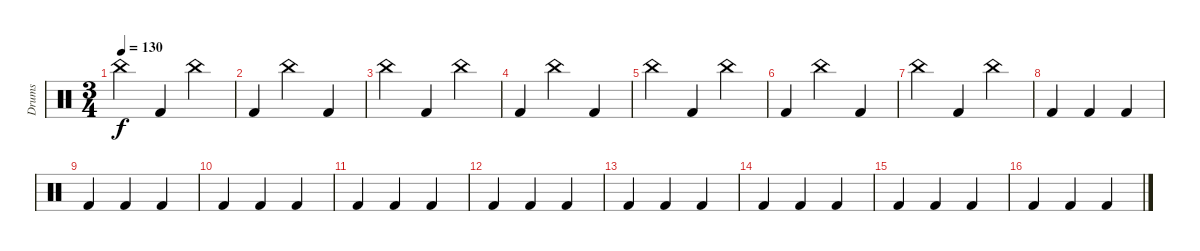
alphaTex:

\track ("Drums" "Drums") {instrument percussion}
\staff {score}
\articulation defaults
\ts (3 4)
\tempo 130
\clef neutral
\ks c "China (hit)".4{dy f} "Kick (hit) 2".4 "China (hit)".4
|
"Kick (hit) 2".4 "China (hit)".4 "Kick (hit) 2".4 |
"China (hit)".4 "Kick (hit) 2".4 "China (hit)".4 |
"Kick (hit) 2".4 "China (hit)".4 "Kick (hit) 2".4 |
"China (hit)".4 "Kick (hit) 2".4 "China (hit)".4 |
"Kick (hit) 2".4 "China (hit)".4 "Kick (hit) 2".4 |
"China (hit)".4 "Kick (hit) 2".4 "China (hit)".4 |
"Kick (hit) 2".4 "Kick (hit) 2".4 "Kick (hit) 2".4 |
"Kick (hit) 2".4 "Kick (hit) 2".4 "Kick (hit) 2".4 |
"Kick (hit) 2".4 "Kick (hit) 2".4 "Kick (hit) 2".4 |
"Kick (hit) 2".4 "Kick (hit) 2".4 "Kick (hit) 2".4 |
"Kick (hit) 2".4 "Kick (hit) 2".4 "Kick (hit) 2".4 |
"Kick (hit) 2".4 "Kick (hit) 2".4 "Kick (hit) 2".4 |
"Kick (hit) 2".4 "Kick (hit) 2".4 "Kick (hit) 2".4 |
"Kick (hit) 2".4 "Kick (hit) 2".4 "Kick (hit) 2".4 |
"Kick (hit) 2".4 "Kick (hit) 2".4 "Kick (hit) 2".4
